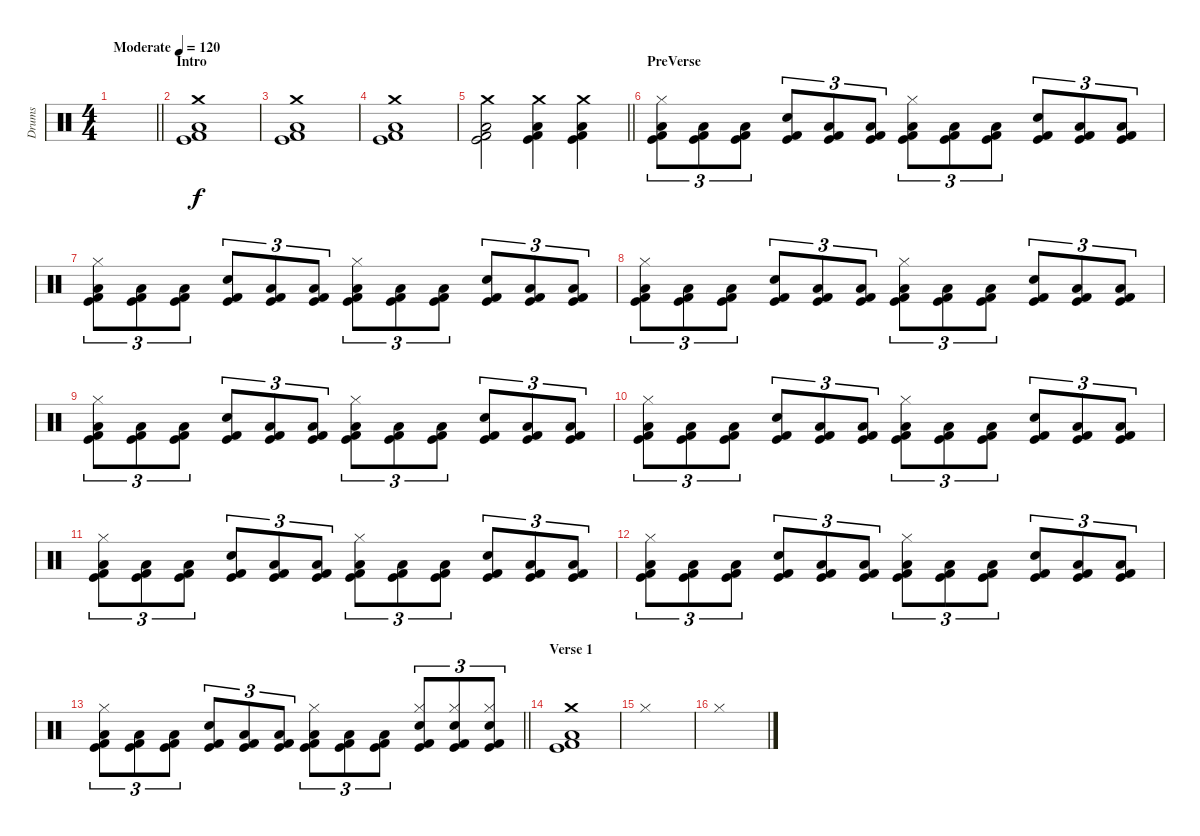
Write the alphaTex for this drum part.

\track ("Drums" "Drums") {instrument percussion}
\staff {score}
\articulation defaults
\ts (4 4)
\tempo (120 "Moderate")
\clef neutral
\barLineRight lightlight
\ks c
|
\section ("" "Intro")
("Crash medium (hit)" "Low Floor Tom (hit)" "Kick (hit) 2" "Kick (hit)").1 |
("Crash medium (hit)" "Low Floor Tom (hit)" "Kick (hit) 2" "Kick (hit)").1 |
("Crash medium (hit)" "Low Floor Tom (hit)" "Kick (hit) 2" "Kick (hit)").1 |
\barLineRight lightlight
("Crash medium (hit)" "Low Floor Tom (hit)" "Kick (hit) 2" "Kick (hit)").2 ("Crash medium (hit)" "Low Floor Tom (hit)" "Kick (hit) 2" "Kick (hit)").4 ("Crash medium (hit)" "Low Floor Tom (hit)" "Kick (hit) 2" "Kick (hit)").4 |
\section ("" "PreVerse")
("Hi-Hat (closed)" "Low Floor Tom (hit)" "Kick (hit) 2" "Kick (hit)").8{tu (3 2)} ("Low Floor Tom (hit)" "Kick (hit) 2" "Kick (hit)").8{tu (3 2)} ("Low Floor Tom (hit)" "Kick (hit) 2" "Kick (hit)").8{tu (3 2)} ("Snare (hit) 2" "Kick (hit) 2" "Kick (hit)").8{tu (3 2)} ("Low Floor Tom (hit)" "Kick (hit) 2" "Kick (hit)").8{tu (3 2)} ("Low Floor Tom (hit)" "Kick (hit) 2" "Kick (hit)").8{tu (3 2)} ("Hi-Hat (closed)" "Low Floor Tom (hit)" "Kick (hit) 2" "Kick (hit)").8{tu (3 2)} ("Low Floor Tom (hit)" "Kick (hit) 2" "Kick (hit)").8{tu (3 2)} ("Low Floor Tom (hit)" "Kick (hit) 2" "Kick (hit)").8{tu (3 2)} ("Snare (hit) 2" "Kick (hit) 2" "Kick (hit)").8{tu (3 2)} ("Low Floor Tom (hit)" "Kick (hit) 2" "Kick (hit)").8{tu (3 2)} ("Low Floor Tom (hit)" "Kick (hit) 2" "Kick (hit)").8{tu (3 2)} |
("Hi-Hat (closed)" "Low Floor Tom (hit)" "Kick (hit) 2" "Kick (hit)").8{tu (3 2)} ("Low Floor Tom (hit)" "Kick (hit) 2" "Kick (hit)").8{tu (3 2)} ("Low Floor Tom (hit)" "Kick (hit) 2" "Kick (hit)").8{tu (3 2)} ("Snare (hit) 2" "Kick (hit) 2" "Kick (hit)").8{tu (3 2)} ("Low Floor Tom (hit)" "Kick (hit) 2" "Kick (hit)").8{tu (3 2)} ("Low Floor Tom (hit)" "Kick (hit) 2" "Kick (hit)").8{tu (3 2)} ("Hi-Hat (closed)" "Low Floor Tom (hit)" "Kick (hit) 2" "Kick (hit)").8{tu (3 2)} ("Low Floor Tom (hit)" "Kick (hit) 2" "Kick (hit)").8{tu (3 2)} ("Low Floor Tom (hit)" "Kick (hit) 2" "Kick (hit)").8{tu (3 2)} ("Snare (hit) 2" "Kick (hit) 2" "Kick (hit)").8{tu (3 2)} ("Low Floor Tom (hit)" "Kick (hit) 2" "Kick (hit)").8{tu (3 2)} ("Low Floor Tom (hit)" "Kick (hit) 2" "Kick (hit)").8{tu (3 2)} |
("Hi-Hat (closed)" "Low Floor Tom (hit)" "Kick (hit) 2" "Kick (hit)").8{tu (3 2)} ("Low Floor Tom (hit)" "Kick (hit) 2" "Kick (hit)").8{tu (3 2)} ("Low Floor Tom (hit)" "Kick (hit) 2" "Kick (hit)").8{tu (3 2)} ("Snare (hit) 2" "Kick (hit) 2" "Kick (hit)").8{tu (3 2)} ("Low Floor Tom (hit)" "Kick (hit) 2" "Kick (hit)").8{tu (3 2)} ("Low Floor Tom (hit)" "Kick (hit) 2" "Kick (hit)").8{tu (3 2)} ("Hi-Hat (closed)" "Low Floor Tom (hit)" "Kick (hit) 2" "Kick (hit)").8{tu (3 2)} ("Low Floor Tom (hit)" "Kick (hit) 2" "Kick (hit)").8{tu (3 2)} ("Low Floor Tom (hit)" "Kick (hit) 2" "Kick (hit)").8{tu (3 2)} ("Snare (hit) 2" "Kick (hit) 2" "Kick (hit)").8{tu (3 2)} ("Low Floor Tom (hit)" "Kick (hit) 2" "Kick (hit)").8{tu (3 2)} ("Low Floor Tom (hit)" "Kick (hit) 2" "Kick (hit)").8{tu (3 2)} |
("Hi-Hat (closed)" "Low Floor Tom (hit)" "Kick (hit) 2" "Kick (hit)").8{tu (3 2)} ("Low Floor Tom (hit)" "Kick (hit) 2" "Kick (hit)").8{tu (3 2)} ("Low Floor Tom (hit)" "Kick (hit) 2" "Kick (hit)").8{tu (3 2)} ("Snare (hit) 2" "Kick (hit) 2" "Kick (hit)").8{tu (3 2)} ("Low Floor Tom (hit)" "Kick (hit) 2" "Kick (hit)").8{tu (3 2)} ("Low Floor Tom (hit)" "Kick (hit) 2" "Kick (hit)").8{tu (3 2)} ("Hi-Hat (closed)" "Low Floor Tom (hit)" "Kick (hit) 2" "Kick (hit)").8{tu (3 2)} ("Low Floor Tom (hit)" "Kick (hit) 2" "Kick (hit)").8{tu (3 2)} ("Low Floor Tom (hit)" "Kick (hit) 2" "Kick (hit)").8{tu (3 2)} ("Snare (hit) 2" "Kick (hit) 2" "Kick (hit)").8{tu (3 2)} ("Low Floor Tom (hit)" "Kick (hit) 2" "Kick (hit)").8{tu (3 2)} ("Low Floor Tom (hit)" "Kick (hit) 2" "Kick (hit)").8{tu (3 2)} |
("Hi-Hat (closed)" "Low Floor Tom (hit)" "Kick (hit) 2" "Kick (hit)").8{tu (3 2)} ("Low Floor Tom (hit)" "Kick (hit) 2" "Kick (hit)").8{tu (3 2)} ("Low Floor Tom (hit)" "Kick (hit) 2" "Kick (hit)").8{tu (3 2)} ("Snare (hit) 2" "Kick (hit) 2" "Kick (hit)").8{tu (3 2)} ("Low Floor Tom (hit)" "Kick (hit) 2" "Kick (hit)").8{tu (3 2)} ("Low Floor Tom (hit)" "Kick (hit) 2" "Kick (hit)").8{tu (3 2)} ("Hi-Hat (closed)" "Low Floor Tom (hit)" "Kick (hit) 2" "Kick (hit)").8{tu (3 2)} ("Low Floor Tom (hit)" "Kick (hit) 2" "Kick (hit)").8{tu (3 2)} ("Low Floor Tom (hit)" "Kick (hit) 2" "Kick (hit)").8{tu (3 2)} ("Snare (hit) 2" "Kick (hit) 2" "Kick (hit)").8{tu (3 2)} ("Low Floor Tom (hit)" "Kick (hit) 2" "Kick (hit)").8{tu (3 2)} ("Low Floor Tom (hit)" "Kick (hit) 2" "Kick (hit)").8{tu (3 2)} |
("Hi-Hat (closed)" "Low Floor Tom (hit)" "Kick (hit) 2" "Kick (hit)").8{tu (3 2)} ("Low Floor Tom (hit)" "Kick (hit) 2" "Kick (hit)").8{tu (3 2)} ("Low Floor Tom (hit)" "Kick (hit) 2" "Kick (hit)").8{tu (3 2)} ("Snare (hit) 2" "Kick (hit) 2" "Kick (hit)").8{tu (3 2)} ("Low Floor Tom (hit)" "Kick (hit) 2" "Kick (hit)").8{tu (3 2)} ("Low Floor Tom (hit)" "Kick (hit) 2" "Kick (hit)").8{tu (3 2)} ("Hi-Hat (closed)" "Low Floor Tom (hit)" "Kick (hit) 2" "Kick (hit)").8{tu (3 2)} ("Low Floor Tom (hit)" "Kick (hit) 2" "Kick (hit)").8{tu (3 2)} ("Low Floor Tom (hit)" "Kick (hit) 2" "Kick (hit)").8{tu (3 2)} ("Snare (hit) 2" "Kick (hit) 2" "Kick (hit)").8{tu (3 2)} ("Low Floor Tom (hit)" "Kick (hit) 2" "Kick (hit)").8{tu (3 2)} ("Low Floor Tom (hit)" "Kick (hit) 2" "Kick (hit)").8{tu (3 2)} |
("Hi-Hat (closed)" "Low Floor Tom (hit)" "Kick (hit) 2" "Kick (hit)").8{tu (3 2)} ("Low Floor Tom (hit)" "Kick (hit) 2" "Kick (hit)").8{tu (3 2)} ("Low Floor Tom (hit)" "Kick (hit) 2" "Kick (hit)").8{tu (3 2)} ("Snare (hit) 2" "Kick (hit) 2" "Kick (hit)").8{tu (3 2)} ("Low Floor Tom (hit)" "Kick (hit) 2" "Kick (hit)").8{tu (3 2)} ("Low Floor Tom (hit)" "Kick (hit) 2" "Kick (hit)").8{tu (3 2)} ("Hi-Hat (closed)" "Low Floor Tom (hit)" "Kick (hit) 2" "Kick (hit)").8{tu (3 2)} ("Low Floor Tom (hit)" "Kick (hit) 2" "Kick (hit)").8{tu (3 2)} ("Low Floor Tom (hit)" "Kick (hit) 2" "Kick (hit)").8{tu (3 2)} ("Snare (hit) 2" "Kick (hit) 2" "Kick (hit)").8{tu (3 2)} ("Low Floor Tom (hit)" "Kick (hit) 2" "Kick (hit)").8{tu (3 2)} ("Low Floor Tom (hit)" "Kick (hit) 2" "Kick (hit)").8{tu (3 2)} |
\barLineRight lightlight
("Hi-Hat (closed)" "Low Floor Tom (hit)" "Kick (hit) 2" "Kick (hit)").8{tu (3 2)} ("Low Floor Tom (hit)" "Kick (hit) 2" "Kick (hit)").8{tu (3 2)} ("Low Floor Tom (hit)" "Kick (hit) 2" "Kick (hit)").8{tu (3 2)} ("Snare (hit) 2" "Kick (hit) 2" "Kick (hit)").8{tu (3 2)} ("Low Floor Tom (hit)" "Kick (hit) 2" "Kick (hit)").8{tu (3 2)} ("Low Floor Tom (hit)" "Kick (hit) 2" "Kick (hit)").8{tu (3 2)} ("Hi-Hat (closed)" "Low Floor Tom (hit)" "Kick (hit) 2" "Kick (hit)").8{tu (3 2)} ("Low Floor Tom (hit)" "Kick (hit) 2" "Kick (hit)").8{tu (3 2)} ("Low Floor Tom (hit)" "Kick (hit) 2" "Kick (hit)").8{tu (3 2)} ("Hi-Hat (closed)" "Snare (hit) 2" "Kick (hit) 2" "Kick (hit)").8{tu (3 2)} ("Hi-Hat (closed)" "Snare (hit) 2" "Kick (hit) 2" "Kick (hit)").8{tu (3 2)} ("Hi-Hat (closed)" "Snare (hit) 2" "Kick (hit) 2" "Kick (hit)").8{tu (3 2)} |
\section ("" "Verse 1")
("Crash medium (hit)" "Low Floor Tom (hit)" "Kick (hit) 2" "Kick (hit)").1 |
"Hi-Hat (closed)".1 |
"Hi-Hat (closed)".1
